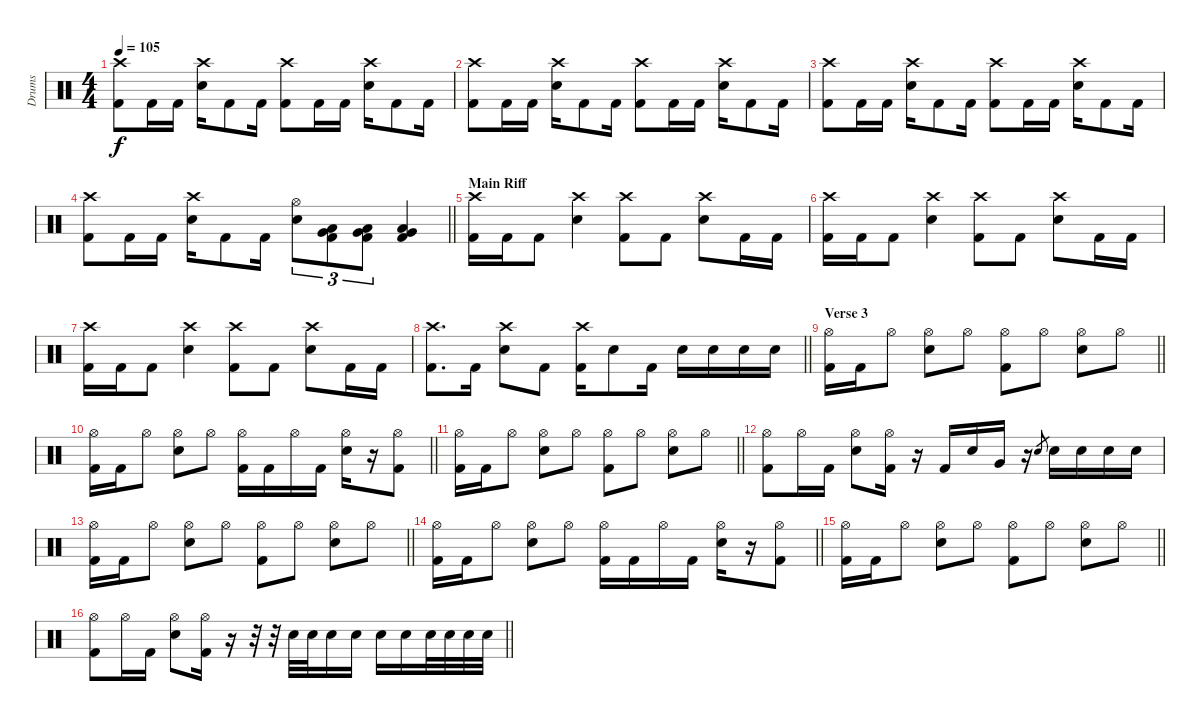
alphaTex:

\track ("Drums" "Drums") {instrument percussion}
\staff {score}
\articulation defaults
\ts (4 4)
\tempo 105
\clef neutral
\ks c
("Crash high (hit)" "Kick (hit) 2").8{dy f} "Kick (hit) 2".16 "Kick (hit) 2".16 ("Crash high (hit)" "Snare (hit) 2").16 "Kick (hit) 2".8 "Kick (hit) 2".16 ("Crash high (hit)" "Kick (hit) 2").8 "Kick (hit) 2".16 "Kick (hit) 2".16 ("Crash high (hit)" "Snare (hit) 2").16 "Kick (hit) 2".8 "Kick (hit) 2".16 |
("Crash high (hit)" "Kick (hit) 2").8 "Kick (hit) 2".16 "Kick (hit) 2".16 ("Crash high (hit)" "Snare (hit) 2").16 "Kick (hit) 2".8 "Kick (hit) 2".16 ("Crash high (hit)" "Kick (hit) 2").8 "Kick (hit) 2".16 "Kick (hit) 2".16 ("Crash high (hit)" "Snare (hit) 2").16 "Kick (hit) 2".8 "Kick (hit) 2".16 |
("Crash high (hit)" "Kick (hit) 2").8 "Kick (hit) 2".16 "Kick (hit) 2".16 ("Crash high (hit)" "Snare (hit) 2").16 "Kick (hit) 2".8 "Kick (hit) 2".16 ("Crash high (hit)" "Kick (hit) 2").8 "Kick (hit) 2".16 "Kick (hit) 2".16 ("Crash high (hit)" "Snare (hit) 2").16 "Kick (hit) 2".8 "Kick (hit) 2".16 |
\barLineRight lightlight
("Crash high (hit)" "Kick (hit) 2").8 "Kick (hit) 2".16 "Kick (hit) 2".16 ("Crash high (hit)" "Snare (hit) 2").16 "Kick (hit) 2".8 "Kick (hit) 2".16 ("Hi-Hat (open)" "Snare (hit) 2").8{tu (3 2)} ("Low Floor Tom (hit)" "Very Low Tom (hit)" "Kick (hit) 2").8{tu (3 2)} ("Low Floor Tom (hit)" "Very Low Tom (hit)" "Kick (hit) 2").8{tu (3 2)} ("Low Floor Tom (hit)" "Very Low Tom (hit)" "Kick (hit) 2").4 |
\section ("" "Main Riff")
("Crash high (hit)" "Kick (hit) 2").16 "Kick (hit) 2".16 "Kick (hit) 2".8 ("Crash high (hit)" "Snare (hit) 2").4 ("Crash high (hit)" "Kick (hit) 2").8 "Kick (hit) 2".8 ("Crash high (hit)" "Snare (hit) 2").8 "Kick (hit) 2".16 "Kick (hit) 2".16 |
("Crash high (hit)" "Kick (hit) 2").16 "Kick (hit) 2".16 "Kick (hit) 2".8 ("Crash high (hit)" "Snare (hit) 2").4 ("Crash high (hit)" "Kick (hit) 2").8 "Kick (hit) 2".8 ("Crash high (hit)" "Snare (hit) 2").8 "Kick (hit) 2".16 "Kick (hit) 2".16 |
("Crash high (hit)" "Kick (hit) 2").16 "Kick (hit) 2".16 "Kick (hit) 2".8 ("Crash high (hit)" "Snare (hit) 2").4 ("Crash high (hit)" "Kick (hit) 2").8 "Kick (hit) 2".8 ("Crash high (hit)" "Snare (hit) 2").8 "Kick (hit) 2".16 "Kick (hit) 2".16 |
\barLineRight lightlight
("Crash high (hit)" "Kick (hit) 2").8{d} "Kick (hit) 2".16 ("Crash high (hit)" "Snare (hit) 2").8 "Kick (hit) 2".8 ("Crash high (hit)" "Kick (hit) 2").16 "Snare (hit) 2".8 "Kick (hit) 2".16 "Snare (hit) 2".16 "Snare (hit) 2".16 "Snare (hit) 2".16 "Snare (hit) 2".16 |
\section ("" "Verse 3")
\barLineRight lightlight
("Hi-Hat (open)" "Kick (hit) 2").16 "Kick (hit) 2".16 "Hi-Hat (open)".8 ("Hi-Hat (open)" "Snare (hit) 2").8 "Hi-Hat (open)".8 ("Hi-Hat (open)" "Kick (hit) 2").8 "Hi-Hat (open)".8 ("Hi-Hat (open)" "Snare (hit) 2").8 "Hi-Hat (open)".8 |
\barLineRight lightlight
("Hi-Hat (open)" "Kick (hit) 2").16 "Kick (hit) 2".16 "Hi-Hat (open)".8 ("Hi-Hat (open)" "Snare (hit) 2").8 "Hi-Hat (open)".8 ("Hi-Hat (open)" "Kick (hit) 2").16 "Kick (hit) 2".16 "Hi-Hat (open)".16 "Kick (hit) 2".16 ("Hi-Hat (open)" "Snare (hit) 2").16 r.16 ("Hi-Hat (open)" "Kick (hit) 2").8 |
\barLineRight lightlight
("Hi-Hat (open)" "Kick (hit) 2").16 "Kick (hit) 2".16 "Hi-Hat (open)".8 ("Hi-Hat (open)" "Snare (hit) 2").8 "Hi-Hat (open)".8 ("Hi-Hat (open)" "Kick (hit) 2").8 "Hi-Hat (open)".8 ("Hi-Hat (open)" "Snare (hit) 2").8 "Hi-Hat (open)".8 |
("Hi-Hat (open)" "Kick (hit) 2").8 "Hi-Hat (open)".16 "Kick (hit) 2".16 ("Hi-Hat (open)" "Snare (hit) 2").8 ("Hi-Hat (open)" "Kick (hit) 2").16 r.16 "Kick (hit) 2".16 "Snare (hit) 2".16 "Very Low Tom (hit)".16 r.16 "Snare (hit) 2".8{gr} "Snare (hit) 2".16 "Snare (hit) 2".16 "Snare (hit) 2".16 "Snare (hit) 2".16 |
\barLineRight lightlight
("Hi-Hat (open)" "Kick (hit) 2").16 "Kick (hit) 2".16 "Hi-Hat (open)".8 ("Hi-Hat (open)" "Snare (hit) 2").8 "Hi-Hat (open)".8 ("Hi-Hat (open)" "Kick (hit) 2").8 "Hi-Hat (open)".8 ("Hi-Hat (open)" "Snare (hit) 2").8 "Hi-Hat (open)".8 |
\barLineRight lightlight
("Hi-Hat (open)" "Kick (hit) 2").16 "Kick (hit) 2".16 "Hi-Hat (open)".8 ("Hi-Hat (open)" "Snare (hit) 2").8 "Hi-Hat (open)".8 ("Hi-Hat (open)" "Kick (hit) 2").16 "Kick (hit) 2".16 "Hi-Hat (open)".16 "Kick (hit) 2".16 ("Hi-Hat (open)" "Snare (hit) 2").16 r.16 ("Hi-Hat (open)" "Kick (hit) 2").8 |
\barLineRight lightlight
("Hi-Hat (open)" "Kick (hit) 2").16 "Kick (hit) 2".16 "Hi-Hat (open)".8 ("Hi-Hat (open)" "Snare (hit) 2").8 "Hi-Hat (open)".8 ("Hi-Hat (open)" "Kick (hit) 2").8 "Hi-Hat (open)".8 ("Hi-Hat (open)" "Snare (hit) 2").8 "Hi-Hat (open)".8 |
\barLineRight lightlight
("Hi-Hat (open)" "Kick (hit) 2").8 "Hi-Hat (open)".16 "Kick (hit) 2".16 ("Hi-Hat (open)" "Snare (hit) 2").8 ("Hi-Hat (open)" "Kick (hit) 2").16 r.16 r.32 r.32 "Snare (hit) 2".32 "Snare (hit) 2".32 "Snare (hit) 2".16 "Snare (hit) 2".16 "Snare (hit) 2".16 "Snare (hit) 2".16 "Snare (hit) 2".32 "Snare (hit) 2".32 "Snare (hit) 2".32 "Snare (hit) 2".32
